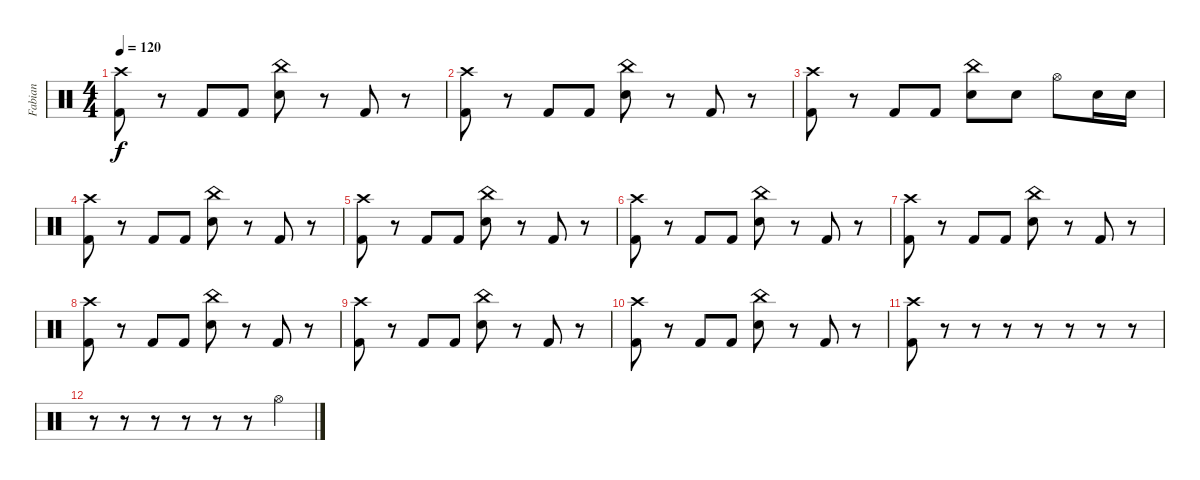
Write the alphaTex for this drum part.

\track ("Fabian" "Fabian") {instrument percussion}
\staff {score}
\articulation defaults
\ts (4 4)
\tempo 120
\clef neutral
\ks c
("Crash high (hit)" "Kick (hit) 2").8{dy f} r.8 "Kick (hit) 2".8 "Kick (hit) 2".8 ("China (hit)" "Snare (hit) 2").8 r.8 "Kick (hit) 2".8 r.8 |
("Crash high (hit)" "Kick (hit) 2").8 r.8 "Kick (hit) 2".8 "Kick (hit) 2".8 ("China (hit)" "Snare (hit) 2").8 r.8 "Kick (hit) 2".8 r.8 |
("Crash high (hit)" "Kick (hit) 2").8 r.8 "Kick (hit) 2".8 "Kick (hit) 2".8 ("China (hit)" "Snare (hit) 2").8 "Snare (hit) 2".8 "Hi-Hat (open)".8 "Snare (hit) 2".16 "Snare (hit) 2".16 |
("Crash high (hit)" "Kick (hit) 2").8 r.8 "Kick (hit) 2".8 "Kick (hit) 2".8 ("China (hit)" "Snare (hit) 2").8 r.8 "Kick (hit) 2".8 r.8 |
("Crash high (hit)" "Kick (hit) 2").8 r.8 "Kick (hit) 2".8 "Kick (hit) 2".8 ("China (hit)" "Snare (hit) 2").8 r.8 "Kick (hit) 2".8 r.8 |
("Crash high (hit)" "Kick (hit) 2").8 r.8 "Kick (hit) 2".8 "Kick (hit) 2".8 ("China (hit)" "Snare (hit) 2").8 r.8 "Kick (hit) 2".8 r.8 |
("Crash high (hit)" "Kick (hit) 2").8 r.8 "Kick (hit) 2".8 "Kick (hit) 2".8 ("China (hit)" "Snare (hit) 2").8 r.8 "Kick (hit) 2".8 r.8 |
("Crash high (hit)" "Kick (hit) 2").8 r.8 "Kick (hit) 2".8 "Kick (hit) 2".8 ("China (hit)" "Snare (hit) 2").8 r.8 "Kick (hit) 2".8 r.8 |
("Crash high (hit)" "Kick (hit) 2").8 r.8 "Kick (hit) 2".8 "Kick (hit) 2".8 ("China (hit)" "Snare (hit) 2").8 r.8 "Kick (hit) 2".8 r.8 |
("Crash high (hit)" "Kick (hit) 2").8 r.8 "Kick (hit) 2".8 "Kick (hit) 2".8 ("China (hit)" "Snare (hit) 2").8 r.8 "Kick (hit) 2".8 r.8 |
("Crash high (hit)" "Kick (hit) 2").8 r.8 r.8 r.8 r.8 r.8 r.8 r.8 |
r.8 r.8 r.8 r.8 r.8 r.8 "Hi-Hat (open)".4
